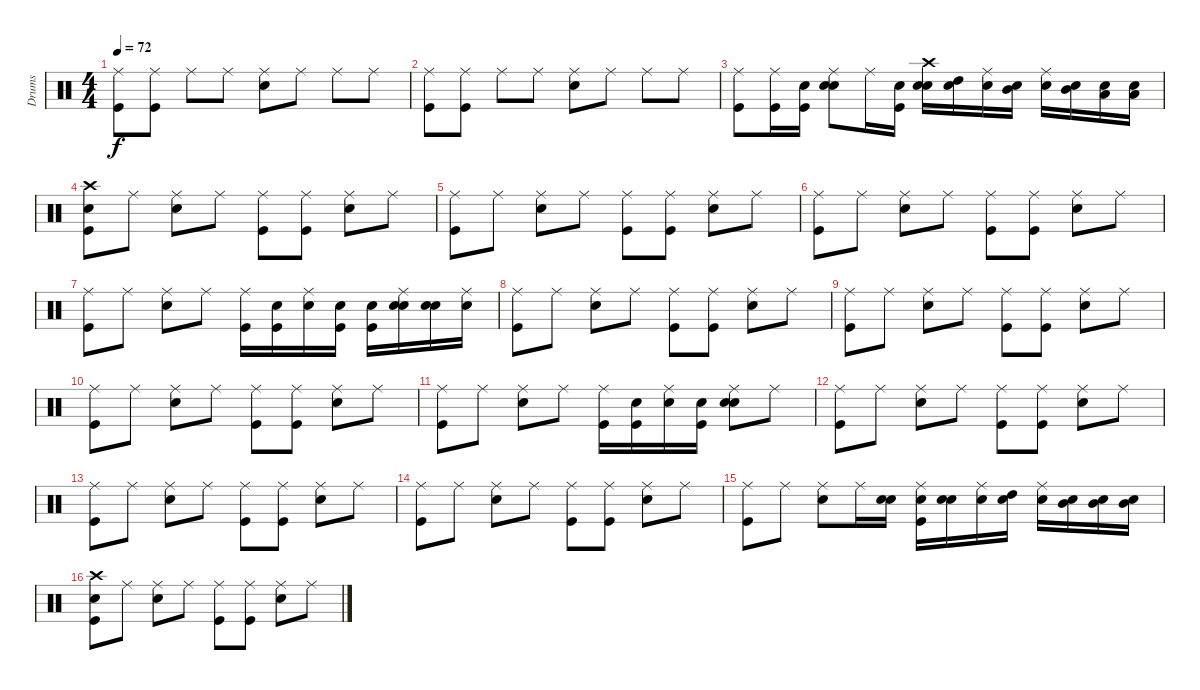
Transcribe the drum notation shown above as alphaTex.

\track ("Drums" "Drums") {instrument percussion}
\staff {score}
\articulation defaults
\ts (4 4)
\tempo 72
\clef neutral
\ks c
("Ride (middle)" "Kick (hit)").8{dy f} ("Ride (middle)" "Kick (hit)").8 "Ride (middle)".8 "Ride (middle)".8 ("Ride (middle)" "Snare (hit) 2").8 "Ride (middle)".8 "Ride (middle)".8 "Ride (middle)".8 |
("Ride (middle)" "Kick (hit)").8 ("Ride (middle)" "Kick (hit)").8 "Ride (middle)".8 "Ride (middle)".8 ("Ride (middle)" "Snare (hit) 2").8 "Ride (middle)".8 "Ride (middle)".8 "Ride (middle)".8 |
("Ride (middle)" "Kick (hit)").8 ("Ride (middle)" "Kick (hit)").16 ("Snare (hit)" "Kick (hit)").16 ("Snare (hit)" "Ride (middle)" "Snare (hit) 2").8 "Ride (middle)".16 ("Snare (hit)" "Kick (hit)").16 ("Snare (hit)" "Crash high (hit)" "Snare (hit) 2").16 ("Snare (hit)" "High Tom (hit)").16 ("Snare (hit)" "Ride (middle)").16 ("Snare (hit)" "Mid Tom (hit)").16 ("Snare (hit)" "Ride (middle)").16 ("Snare (hit)" "Mid Tom (hit)").16 ("Snare (hit)" "Low Tom (hit)").16 ("Snare (hit)" "Low Tom (hit)").16 |
("Snare (hit)" "Crash high (hit)" "Kick (hit)").8 "Ride (middle)".8 ("Ride (middle)" "Snare (hit) 2").8 "Ride (middle)".8 ("Ride (middle)" "Kick (hit)").8 ("Ride (middle)" "Kick (hit)").8 ("Ride (middle)" "Snare (hit) 2").8 "Ride (middle)".8 |
("Ride (middle)" "Kick (hit)").8 "Ride (middle)".8 ("Ride (middle)" "Snare (hit) 2").8 "Ride (middle)".8 ("Ride (middle)" "Kick (hit)").8 ("Ride (middle)" "Kick (hit)").8 ("Ride (middle)" "Snare (hit) 2").8 "Ride (middle)".8 |
("Ride (middle)" "Kick (hit)").8 "Ride (middle)".8 ("Ride (middle)" "Snare (hit) 2").8 "Ride (middle)".8 ("Ride (middle)" "Kick (hit)").8 ("Ride (middle)" "Kick (hit)").8 ("Ride (middle)" "Snare (hit) 2").8 "Ride (middle)".8 |
("Ride (middle)" "Kick (hit)").8 "Ride (middle)".8 ("Ride (middle)" "Snare (hit) 2").8 "Ride (middle)".8 ("Ride (middle)" "Kick (hit)").16 ("Snare (hit)" "Kick (hit)").16 ("Snare (hit)" "Ride (middle)").16 ("Snare (hit)" "Kick (hit)").16 ("Snare (hit)" "Kick (hit)").16 ("Snare (hit)" "Ride (middle)" "Snare (hit) 2").16 ("Snare (hit)" "Snare (hit) 2").16 ("Snare (hit)" "Ride (middle)").16 |
("Ride (middle)" "Kick (hit)").8 "Ride (middle)".8 ("Ride (middle)" "Snare (hit) 2").8 "Ride (middle)".8 ("Ride (middle)" "Kick (hit)").8 ("Ride (middle)" "Kick (hit)").8 ("Ride (middle)" "Snare (hit) 2").8 "Ride (middle)".8 |
("Ride (middle)" "Kick (hit)").8 "Ride (middle)".8 ("Ride (middle)" "Snare (hit) 2").8 "Ride (middle)".8 ("Ride (middle)" "Kick (hit)").8 ("Ride (middle)" "Kick (hit)").8 ("Ride (middle)" "Snare (hit) 2").8 "Ride (middle)".8 |
("Ride (middle)" "Kick (hit)").8 "Ride (middle)".8 ("Ride (middle)" "Snare (hit) 2").8 "Ride (middle)".8 ("Ride (middle)" "Kick (hit)").8 ("Ride (middle)" "Kick (hit)").8 ("Ride (middle)" "Snare (hit) 2").8 "Ride (middle)".8 |
("Ride (middle)" "Kick (hit)").8 "Ride (middle)".8 ("Ride (middle)" "Snare (hit) 2").8 "Ride (middle)".8 ("Ride (middle)" "Kick (hit)").16 ("Snare (hit)" "Kick (hit)").16 ("Snare (hit)" "Ride (middle)").16 ("Snare (hit)" "Kick (hit)").16 ("Snare (hit)" "Ride (middle)" "Snare (hit) 2").8 "Ride (middle)".8 |
("Ride (middle)" "Kick (hit)").8 "Ride (middle)".8 ("Ride (middle)" "Snare (hit) 2").8 "Ride (middle)".8 ("Ride (middle)" "Kick (hit)").8 ("Ride (middle)" "Kick (hit)").8 ("Ride (middle)" "Snare (hit) 2").8 "Ride (middle)".8 |
("Ride (middle)" "Kick (hit)").8 "Ride (middle)".8 ("Ride (middle)" "Snare (hit) 2").8 "Ride (middle)".8 ("Ride (middle)" "Kick (hit)").8 ("Ride (middle)" "Kick (hit)").8 ("Ride (middle)" "Snare (hit) 2").8 "Ride (middle)".8 |
("Ride (middle)" "Kick (hit)").8 "Ride (middle)".8 ("Ride (middle)" "Snare (hit) 2").8 "Ride (middle)".8 ("Ride (middle)" "Kick (hit)").8 ("Ride (middle)" "Kick (hit)").8 ("Ride (middle)" "Snare (hit) 2").8 "Ride (middle)".8 |
("Ride (middle)" "Kick (hit)").8 "Ride (middle)".8 ("Ride (middle)" "Snare (hit) 2").8 "Ride (middle)".16 ("Snare (hit)" "Snare (hit) 2").16 ("Snare (hit)" "Ride (middle)" "Kick (hit)").16 ("Snare (hit)" "Snare (hit) 2").16 ("Snare (hit)" "Ride (middle)").16 ("Snare (hit)" "High Tom (hit)").16 ("Snare (hit)" "Ride (middle)").16 ("Snare (hit)" "Mid Tom (hit)").16 ("Snare (hit)" "Mid Tom (hit)").16 ("Snare (hit)" "Mid Tom (hit)").16 |
("Snare (hit)" "Crash high (hit)" "Kick (hit)").8 "Ride (middle)".8 ("Ride (middle)" "Snare (hit) 2").8 "Ride (middle)".8 ("Ride (middle)" "Kick (hit)").8 ("Ride (middle)" "Kick (hit)").8 ("Ride (middle)" "Snare (hit) 2").8 "Ride (middle)".8
